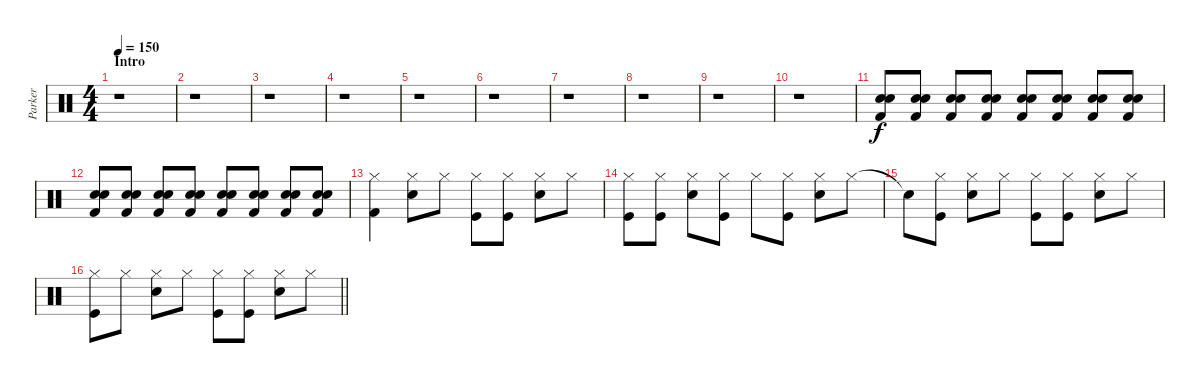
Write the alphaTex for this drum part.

\track ("Parker" "Parker") {instrument percussion}
\staff {score}
\articulation defaults
\ts (4 4)
\section ("" "Intro")
\tempo 150
\clef neutral
\ks c
r.1{dy f} |
r.1 |
r.1 |
r.1 |
r.1 |
r.1 |
r.1 |
r.1 |
r.1 |
r.1{volume 5} |
("Snare (hit) 2" "Snare (hit) 2" "Kick (hit) 2").8{volume 16} ("Snare (hit) 2" "Snare (hit) 2" "Kick (hit) 2").8 ("Snare (hit) 2" "Snare (hit) 2" "Kick (hit) 2").8 ("Snare (hit) 2" "Snare (hit) 2" "Kick (hit) 2").8 ("Snare (hit) 2" "Snare (hit) 2" "Kick (hit) 2").8 ("Snare (hit) 2" "Snare (hit) 2" "Kick (hit) 2").8 ("Snare (hit) 2" "Snare (hit) 2" "Kick (hit) 2").8 ("Snare (hit) 2" "Snare (hit) 2" "Kick (hit) 2").8 |
("Snare (hit) 2" "Snare (hit) 2" "Kick (hit) 2").8 ("Snare (hit) 2" "Snare (hit) 2" "Kick (hit) 2").8 ("Snare (hit) 2" "Snare (hit) 2" "Kick (hit) 2").8 ("Snare (hit) 2" "Snare (hit) 2" "Kick (hit) 2").8 ("Snare (hit) 2" "Snare (hit) 2" "Kick (hit) 2").8 ("Snare (hit) 2" "Snare (hit) 2" "Kick (hit) 2").8 ("Snare (hit) 2" "Snare (hit) 2" "Kick (hit) 2").8 ("Snare (hit) 2" "Snare (hit) 2" "Kick (hit) 2").8{volume 16} |
("Hi-Hat (closed)" "Kick (hit) 2").4 ("Hi-Hat (closed)" "Snare (hit) 2").8 "Hi-Hat (closed)".8 ("Hi-Hat (closed)" "Kick (hit)").8 ("Hi-Hat (closed)" "Kick (hit)").8 ("Hi-Hat (closed)" "Electric Snare (hit)").8 "Hi-Hat (closed)".8 |
("Hi-Hat (closed)" "Kick (hit)").8 ("Hi-Hat (closed)" "Kick (hit)").8 ("Hi-Hat (closed)" "Electric Snare (hit)").8 ("Hi-Hat (closed)" "Kick (hit)").8 "Hi-Hat (closed)".8 ("Hi-Hat (closed)" "Kick (hit)").8 ("Hi-Hat (closed)" "Electric Snare (hit)").8 "Hi-Hat (closed)".8 |
"Snare (hit)"{t}.8 ("Hi-Hat (closed)" "Kick (hit)").8 ("Hi-Hat (closed)" "Electric Snare (hit)").8 "Hi-Hat (closed)".8 ("Hi-Hat (closed)" "Kick (hit)").8 ("Hi-Hat (closed)" "Kick (hit)").8 ("Hi-Hat (closed)" "Electric Snare (hit)").8 "Hi-Hat (closed)".8 |
\barLineRight lightlight
("Hi-Hat (closed)" "Kick (hit)").8 "Hi-Hat (closed)".8 ("Hi-Hat (closed)" "Electric Snare (hit)").8 "Hi-Hat (closed)".8 ("Hi-Hat (closed)" "Kick (hit)").8 ("Hi-Hat (closed)" "Kick (hit)").8 ("Hi-Hat (closed)" "Electric Snare (hit)").8 "Hi-Hat (closed)".8
